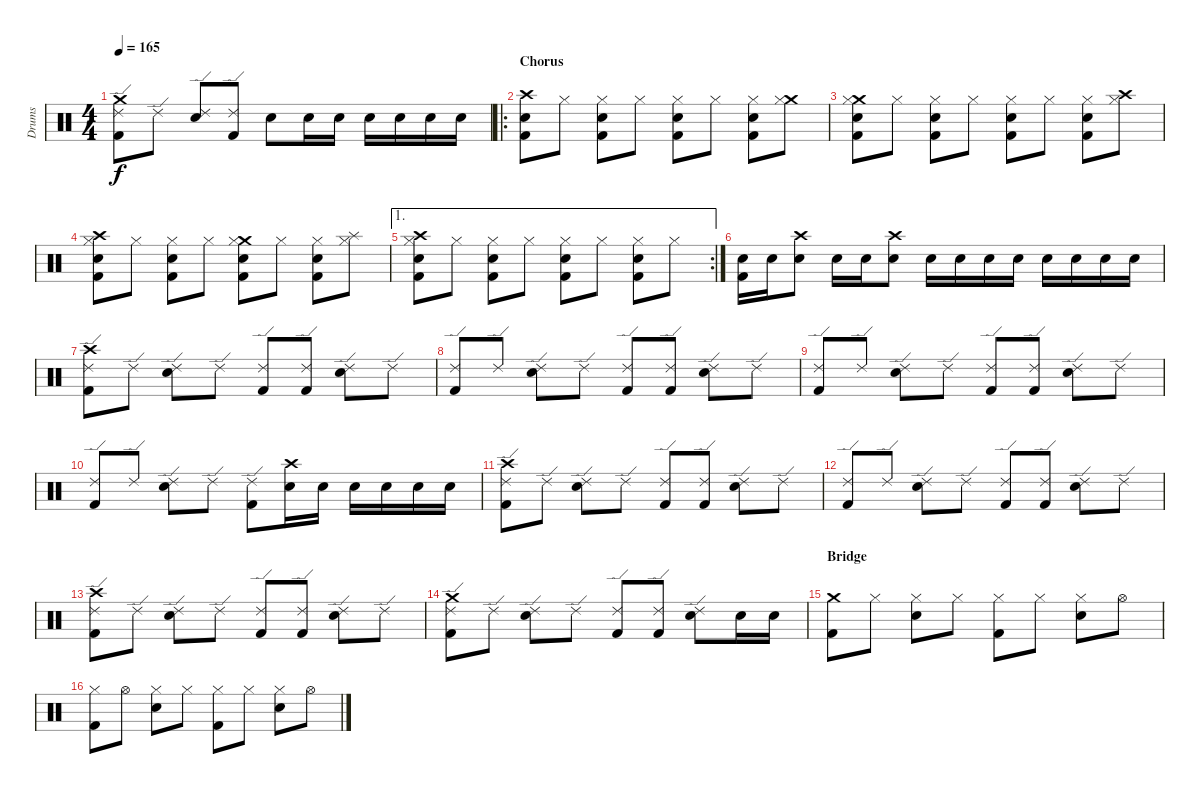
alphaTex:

\track ("Drums" "Drums") {instrument percussion}
\staff {score}
\articulation defaults
\ts (4 4)
\tempo 165
\clef neutral
\ks c
("Crash medium (hit)" "Ride (edge) 2" "Kick (hit) 2").8{dy f} "Ride (edge) 2".8 ("Ride (edge) 2" "Snare (hit) 2").8 ("Ride (edge) 2" "Kick (hit) 2").8 "Snare (hit) 2".8 "Snare (hit) 2".16 "Snare (hit) 2".16 "Snare (hit) 2".16 "Snare (hit) 2".16 "Snare (hit) 2".16 "Snare (hit) 2".16 |
\ro
\section ("" "Chorus")
("Crash high (hit)" "Snare (hit) 2" "Kick (hit) 2").8 "Hi-Hat (closed)".8 ("Hi-Hat (closed)" "Snare (hit) 2" "Kick (hit) 2").8 "Hi-Hat (closed)".8 ("Hi-Hat (closed)" "Snare (hit) 2" "Kick (hit) 2").8 "Hi-Hat (closed)".8 ("Hi-Hat (closed)" "Snare (hit) 2" "Kick (hit) 2").8 ("Crash medium (hit)" "Hi-Hat (closed)").8 |
("Crash medium (hit)" "Hi-Hat (closed)" "Snare (hit) 2" "Kick (hit) 2").8 "Hi-Hat (closed)".8 ("Hi-Hat (closed)" "Snare (hit) 2" "Kick (hit) 2").8 "Hi-Hat (closed)".8 ("Hi-Hat (closed)" "Snare (hit) 2" "Kick (hit) 2").8 "Hi-Hat (closed)".8 ("Hi-Hat (closed)" "Snare (hit) 2" "Kick (hit) 2").8 ("Crash high (hit)" "Hi-Hat (closed)").8 |
("Crash high (hit)" "Hi-Hat (closed)" "Snare (hit) 2" "Kick (hit) 2").8 "Hi-Hat (closed)".8 ("Hi-Hat (closed)" "Snare (hit) 2" "Kick (hit) 2").8 "Hi-Hat (closed)".8 ("Crash medium (hit)" "Hi-Hat (closed)" "Snare (hit) 2" "Kick (hit) 2").8 "Hi-Hat (closed)".8 ("Hi-Hat (closed)" "Snare (hit) 2" "Kick (hit) 2").8 ("Splash (hit)" "Hi-Hat (closed)").8 |
\ae 1
\rc 2
("Crash high (hit)" "Hi-Hat (closed)" "Snare (hit) 2" "Kick (hit) 2").8 "Hi-Hat (closed)".8 ("Hi-Hat (closed)" "Snare (hit) 2" "Kick (hit) 2").8 "Hi-Hat (closed)".8 ("Hi-Hat (closed)" "Snare (hit) 2" "Kick (hit) 2").8 "Hi-Hat (closed)".8 ("Hi-Hat (closed)" "Snare (hit) 2" "Kick (hit) 2").8 "Hi-Hat (closed)".8 |
("Snare (hit) 2" "Kick (hit) 2").16 "Snare (hit) 2".16 ("Crash high (hit)" "Snare (hit) 2").8 "Snare (hit) 2".16 "Snare (hit) 2".16 ("Crash high (hit)" "Snare (hit) 2").8 "Snare (hit) 2".16 "Snare (hit) 2".16 "Snare (hit) 2".16 "Snare (hit) 2".16 "Snare (hit) 2".16 "Snare (hit) 2".16 "Snare (hit) 2".16 "Snare (hit) 2".16 |
("Crash high (hit)" "Ride (edge) 2" "Kick (hit) 2").8 "Ride (edge) 2".8 ("Ride (edge) 2" "Snare (hit) 2").8 "Ride (edge) 2".8 ("Ride (edge) 2" "Kick (hit) 2").8 ("Ride (edge) 2" "Kick (hit) 2").8 ("Ride (edge) 2" "Snare (hit) 2").8 "Ride (edge) 2".8 |
("Ride (edge) 2" "Kick (hit) 2").8 "Ride (edge) 2".8 ("Ride (edge) 2" "Snare (hit) 2").8 "Ride (edge) 2".8 ("Ride (edge) 2" "Kick (hit) 2").8 ("Ride (edge) 2" "Kick (hit) 2").8 ("Ride (edge) 2" "Snare (hit) 2").8 "Ride (edge) 2".8 |
("Ride (edge) 2" "Kick (hit) 2").8 "Ride (edge) 2".8 ("Ride (edge) 2" "Snare (hit) 2").8 "Ride (edge) 2".8 ("Ride (edge) 2" "Kick (hit) 2").8 ("Ride (edge) 2" "Kick (hit) 2").8 ("Ride (edge) 2" "Snare (hit) 2").8 "Ride (edge) 2".8 |
("Ride (edge) 2" "Kick (hit) 2").8 "Ride (edge) 2".8 ("Ride (edge) 2" "Snare (hit) 2").8 "Ride (edge) 2".8 ("Ride (edge) 2" "Kick (hit) 2").8 ("Crash high (hit)" "Snare (hit) 2").16 "Snare (hit) 2".16 "Snare (hit) 2".16 "Snare (hit) 2".16 "Snare (hit) 2".16 "Snare (hit) 2".16 |
("Crash high (hit)" "Ride (edge) 2" "Kick (hit) 2").8 "Ride (edge) 2".8 ("Ride (edge) 2" "Snare (hit) 2").8 "Ride (edge) 2".8 ("Ride (edge) 2" "Kick (hit) 2").8 ("Ride (edge) 2" "Kick (hit) 2").8 ("Ride (edge) 2" "Snare (hit) 2").8 "Ride (edge) 2".8 |
("Ride (edge) 2" "Kick (hit) 2").8 "Ride (edge) 2".8 ("Ride (edge) 2" "Snare (hit) 2").8 "Ride (edge) 2".8 ("Ride (edge) 2" "Kick (hit) 2").8 ("Ride (edge) 2" "Kick (hit) 2").8 ("Ride (edge) 2" "Snare (hit) 2").8 "Ride (edge) 2".8 |
("Crash high (hit)" "Ride (edge) 2" "Kick (hit) 2").8 "Ride (edge) 2".8 ("Ride (edge) 2" "Snare (hit) 2").8 "Ride (edge) 2".8 ("Ride (edge) 2" "Kick (hit) 2").8 ("Ride (edge) 2" "Kick (hit) 2").8 ("Ride (edge) 2" "Snare (hit) 2").8 "Ride (edge) 2".8 |
("Crash medium (hit)" "Ride (edge) 2" "Kick (hit) 2").8 "Ride (edge) 2".8 ("Ride (edge) 2" "Snare (hit) 2").8 "Ride (edge) 2".8 ("Ride (edge) 2" "Kick (hit) 2").8 ("Ride (edge) 2" "Kick (hit) 2").8 ("Ride (edge) 2" "Snare (hit) 2").8 "Snare (hit) 2".16 "Snare (hit) 2".16 |
\section ("" "Bridge")
("Crash medium (hit)" "Kick (hit) 2").8 "Hi-Hat (closed)".8 ("Hi-Hat (closed)" "Snare (hit) 2").8 "Hi-Hat (closed)".8 ("Hi-Hat (closed)" "Kick (hit) 2").8 "Hi-Hat (closed)".8 ("Hi-Hat (closed)" "Snare (hit) 2").8 "Hi-Hat (open)".8 |
("Hi-Hat (closed)" "Kick (hit) 2").8 "Hi-Hat (open)".8 ("Hi-Hat (closed)" "Snare (hit) 2").8 "Hi-Hat (closed)".8 ("Hi-Hat (closed)" "Kick (hit) 2").8 "Hi-Hat (closed)".8 ("Hi-Hat (closed)" "Snare (hit) 2").8 "Hi-Hat (open)".8
